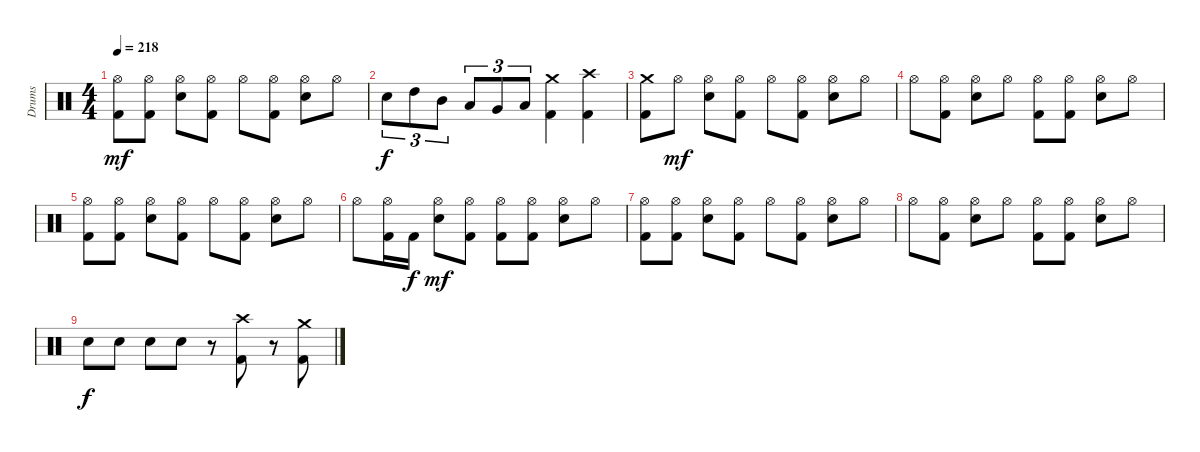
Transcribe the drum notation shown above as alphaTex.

\track ("Drums" "Drums") {instrument percussion}
\staff {score}
\articulation defaults
\ts (4 4)
\tempo 218
\clef neutral
\ks c
("Hi-Hat (open)" "Kick (hit) 2").8{dy mf} ("Hi-Hat (open)" "Kick (hit) 2").8 ("Hi-Hat (open)" "Snare (hit) 2").8 ("Hi-Hat (open)" "Kick (hit) 2").8 "Hi-Hat (open)".8 ("Hi-Hat (open)" "Kick (hit) 2").8 ("Hi-Hat (open)" "Snare (hit) 2").8 "Hi-Hat (open)".8 |
"Snare (hit) 2".8{tu (3 2) dy f} "High Tom (hit)".8{tu (3 2)} "Mid Tom (hit)".8{tu (3 2)} "Low Tom (hit)".8{tu (3 2)} "Very Low Tom (hit)".8{tu (3 2)} "Low Floor Tom (hit)".8{tu (3 2)} ("Crash medium (hit)" "Kick (hit) 2").4 ("Crash high (hit)" "Kick (hit) 2").4 |
("Crash medium (hit)" "Kick (hit) 2").8 "Hi-Hat (open)".8{dy mf} ("Hi-Hat (open)" "Snare (hit) 2").8 ("Hi-Hat (open)" "Kick (hit) 2").8 "Hi-Hat (open)".8 ("Hi-Hat (open)" "Kick (hit) 2").8 ("Hi-Hat (open)" "Snare (hit) 2").8 "Hi-Hat (open)".8 |
"Hi-Hat (open)".8 ("Hi-Hat (open)" "Kick (hit) 2").8 ("Hi-Hat (open)" "Snare (hit) 2").8 "Hi-Hat (open)".8 ("Hi-Hat (open)" "Kick (hit) 2").8 ("Hi-Hat (open)" "Kick (hit) 2").8 ("Hi-Hat (open)" "Snare (hit) 2").8 "Hi-Hat (open)".8 |
("Hi-Hat (open)" "Kick (hit) 2").8 ("Hi-Hat (open)" "Kick (hit) 2").8 ("Hi-Hat (open)" "Snare (hit) 2").8 ("Hi-Hat (open)" "Kick (hit) 2").8 "Hi-Hat (open)".8 ("Hi-Hat (open)" "Kick (hit) 2").8 ("Hi-Hat (open)" "Snare (hit) 2").8 "Hi-Hat (open)".8 |
"Hi-Hat (open)".8 ("Hi-Hat (open)" "Kick (hit) 2").16 "Kick (hit) 2".16{dy f} ("Hi-Hat (open)" "Snare (hit) 2").8{dy mf} ("Hi-Hat (open)" "Kick (hit) 2").8 ("Hi-Hat (open)" "Kick (hit) 2").8 ("Hi-Hat (open)" "Kick (hit) 2").8 ("Hi-Hat (open)" "Snare (hit) 2").8 "Hi-Hat (open)".8 |
("Hi-Hat (open)" "Kick (hit) 2").8 ("Hi-Hat (open)" "Kick (hit) 2").8 ("Hi-Hat (open)" "Snare (hit) 2").8 ("Hi-Hat (open)" "Kick (hit) 2").8 "Hi-Hat (open)".8 ("Hi-Hat (open)" "Kick (hit) 2").8 ("Hi-Hat (open)" "Snare (hit) 2").8 "Hi-Hat (open)".8 |
"Hi-Hat (open)".8 ("Hi-Hat (open)" "Kick (hit) 2").8 ("Hi-Hat (open)" "Snare (hit) 2").8 "Hi-Hat (open)".8 ("Hi-Hat (open)" "Kick (hit) 2").8 ("Hi-Hat (open)" "Kick (hit) 2").8 ("Hi-Hat (open)" "Snare (hit) 2").8 "Hi-Hat (open)".8 |
"Snare (hit) 2".8{dy f} "Snare (hit) 2".8 "Snare (hit) 2".8 "Snare (hit) 2".8 r.8 ("Crash high (hit)" "Kick (hit) 2").8 r.8 ("Crash medium (hit)" "Kick (hit) 2").8
